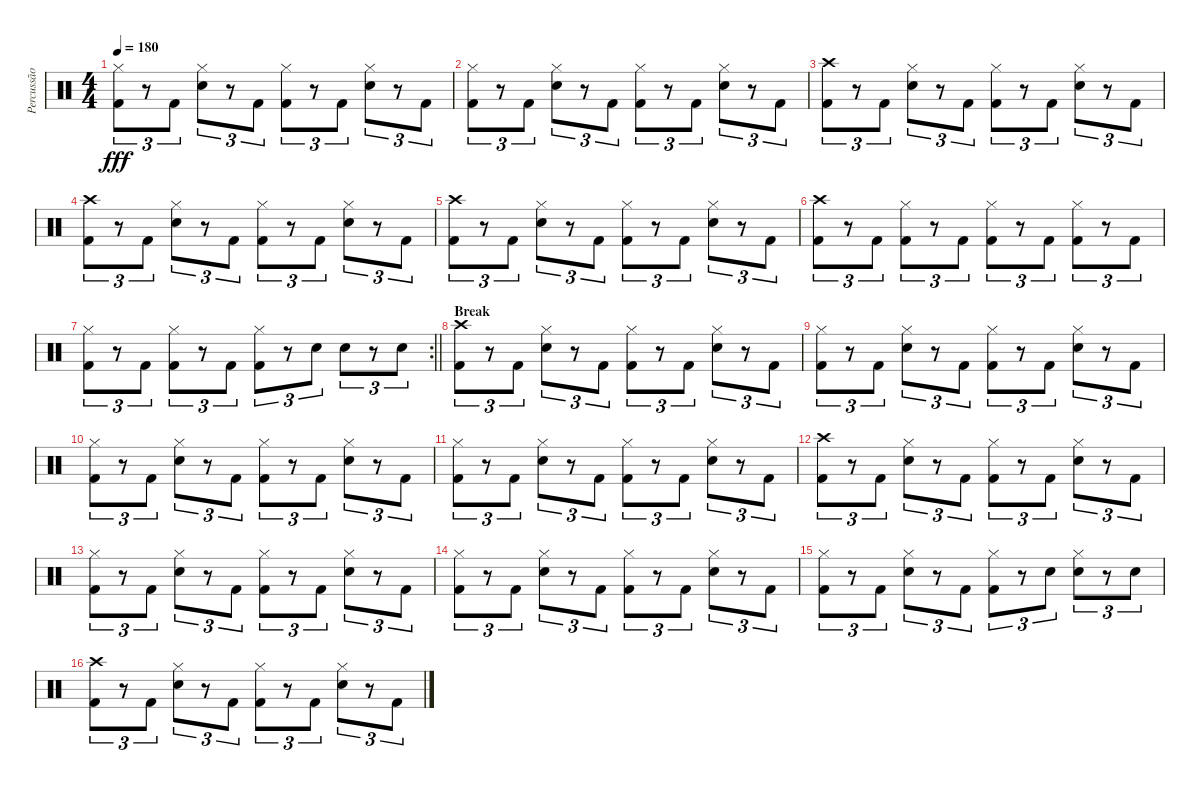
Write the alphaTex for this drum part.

\track ("Percussão" "Percussão") {instrument percussion}
\staff {score}
\articulation defaults
\ts (4 4)
\tempo 180
\clef neutral
\ks c
("Hi-Hat (closed)" "Kick (hit) 2").8{tu (3 2) dy fff} r.8{tu (3 2)} "Kick (hit) 2".8{tu (3 2)} ("Hi-Hat (closed)" "Snare (hit) 2").8{tu (3 2)} r.8{tu (3 2)} "Kick (hit) 2".8{tu (3 2)} ("Hi-Hat (closed)" "Kick (hit) 2").8{tu (3 2)} r.8{tu (3 2)} "Kick (hit) 2".8{tu (3 2)} ("Hi-Hat (closed)" "Snare (hit) 2").8{tu (3 2)} r.8{tu (3 2)} "Kick (hit) 2".8{tu (3 2)} |
("Hi-Hat (closed)" "Kick (hit) 2").8{tu (3 2)} r.8{tu (3 2)} "Kick (hit) 2".8{tu (3 2)} ("Hi-Hat (closed)" "Snare (hit) 2").8{tu (3 2)} r.8{tu (3 2)} "Kick (hit) 2".8{tu (3 2)} ("Hi-Hat (closed)" "Kick (hit) 2").8{tu (3 2)} r.8{tu (3 2)} "Kick (hit) 2".8{tu (3 2)} ("Hi-Hat (closed)" "Snare (hit) 2").8{tu (3 2)} r.8{tu (3 2)} "Kick (hit) 2".8{tu (3 2)} |
("Crash high (hit)" "Kick (hit) 2").8{tu (3 2)} r.8{tu (3 2)} "Kick (hit) 2".8{tu (3 2)} ("Hi-Hat (closed)" "Snare (hit) 2").8{tu (3 2)} r.8{tu (3 2)} "Kick (hit) 2".8{tu (3 2)} ("Hi-Hat (closed)" "Kick (hit) 2").8{tu (3 2)} r.8{tu (3 2)} "Kick (hit) 2".8{tu (3 2)} ("Hi-Hat (closed)" "Snare (hit) 2").8{tu (3 2)} r.8{tu (3 2)} "Kick (hit) 2".8{tu (3 2)} |
("Crash high (hit)" "Kick (hit) 2").8{tu (3 2)} r.8{tu (3 2)} "Kick (hit) 2".8{tu (3 2)} ("Hi-Hat (closed)" "Snare (hit) 2").8{tu (3 2)} r.8{tu (3 2)} "Kick (hit) 2".8{tu (3 2)} ("Hi-Hat (closed)" "Kick (hit) 2").8{tu (3 2)} r.8{tu (3 2)} "Kick (hit) 2".8{tu (3 2)} ("Hi-Hat (closed)" "Snare (hit) 2").8{tu (3 2)} r.8{tu (3 2)} "Kick (hit) 2".8{tu (3 2)} |
("Crash high (hit)" "Kick (hit) 2").8{tu (3 2)} r.8{tu (3 2)} "Kick (hit) 2".8{tu (3 2)} ("Hi-Hat (closed)" "Snare (hit) 2").8{tu (3 2)} r.8{tu (3 2)} "Kick (hit) 2".8{tu (3 2)} ("Hi-Hat (closed)" "Kick (hit) 2").8{tu (3 2)} r.8{tu (3 2)} "Kick (hit) 2".8{tu (3 2)} ("Hi-Hat (closed)" "Snare (hit) 2").8{tu (3 2)} r.8{tu (3 2)} "Kick (hit) 2".8{tu (3 2)} |
("Crash high (hit)" "Kick (hit) 2").8{tu (3 2)} r.8{tu (3 2)} "Kick (hit) 2".8{tu (3 2)} ("Hi-Hat (closed)" "Kick (hit) 2").8{tu (3 2)} r.8{tu (3 2)} "Kick (hit) 2".8{tu (3 2)} ("Hi-Hat (closed)" "Kick (hit) 2").8{tu (3 2)} r.8{tu (3 2)} "Kick (hit) 2".8{tu (3 2)} ("Hi-Hat (closed)" "Kick (hit) 2").8{tu (3 2)} r.8{tu (3 2)} "Kick (hit) 2".8{tu (3 2)} |
\rc 2
\barLineRight lightlight
("Hi-Hat (closed)" "Kick (hit) 2").8{tu (3 2)} r.8{tu (3 2)} "Kick (hit) 2".8{tu (3 2)} ("Hi-Hat (closed)" "Kick (hit) 2").8{tu (3 2)} r.8{tu (3 2)} "Kick (hit) 2".8{tu (3 2)} ("Hi-Hat (closed)" "Kick (hit) 2").8{tu (3 2)} r.8{tu (3 2)} "Snare (hit) 2".8{tu (3 2)} "Snare (hit) 2".8{tu (3 2)} r.8{tu (3 2)} "Snare (hit) 2".8{tu (3 2)} |
\section ("" "Break")
("Crash high (hit)" "Kick (hit) 2").8{tu (3 2)} r.8{tu (3 2)} "Kick (hit) 2".8{tu (3 2)} ("Hi-Hat (closed)" "Snare (hit) 2").8{tu (3 2)} r.8{tu (3 2)} "Kick (hit) 2".8{tu (3 2)} ("Hi-Hat (closed)" "Kick (hit) 2").8{tu (3 2)} r.8{tu (3 2)} "Kick (hit) 2".8{tu (3 2)} ("Hi-Hat (closed)" "Snare (hit) 2").8{tu (3 2)} r.8{tu (3 2)} "Kick (hit) 2".8{tu (3 2)} |
("Hi-Hat (closed)" "Kick (hit) 2").8{tu (3 2)} r.8{tu (3 2)} "Kick (hit) 2".8{tu (3 2)} ("Hi-Hat (closed)" "Snare (hit) 2").8{tu (3 2)} r.8{tu (3 2)} "Kick (hit) 2".8{tu (3 2)} ("Hi-Hat (closed)" "Kick (hit) 2").8{tu (3 2)} r.8{tu (3 2)} "Kick (hit) 2".8{tu (3 2)} ("Hi-Hat (closed)" "Snare (hit) 2").8{tu (3 2)} r.8{tu (3 2)} "Kick (hit) 2".8{tu (3 2)} |
("Hi-Hat (closed)" "Kick (hit) 2").8{tu (3 2)} r.8{tu (3 2)} "Kick (hit) 2".8{tu (3 2)} ("Hi-Hat (closed)" "Snare (hit) 2").8{tu (3 2)} r.8{tu (3 2)} "Kick (hit) 2".8{tu (3 2)} ("Hi-Hat (closed)" "Kick (hit) 2").8{tu (3 2)} r.8{tu (3 2)} "Kick (hit) 2".8{tu (3 2)} ("Hi-Hat (closed)" "Snare (hit) 2").8{tu (3 2)} r.8{tu (3 2)} "Kick (hit) 2".8{tu (3 2)} |
("Hi-Hat (closed)" "Kick (hit) 2").8{tu (3 2)} r.8{tu (3 2)} "Kick (hit) 2".8{tu (3 2)} ("Hi-Hat (closed)" "Snare (hit) 2").8{tu (3 2)} r.8{tu (3 2)} "Kick (hit) 2".8{tu (3 2)} ("Hi-Hat (closed)" "Kick (hit) 2").8{tu (3 2)} r.8{tu (3 2)} "Kick (hit) 2".8{tu (3 2)} ("Hi-Hat (closed)" "Snare (hit) 2").8{tu (3 2)} r.8{tu (3 2)} "Kick (hit) 2".8{tu (3 2)} |
("Crash high (hit)" "Kick (hit) 2").8{tu (3 2)} r.8{tu (3 2)} "Kick (hit) 2".8{tu (3 2)} ("Hi-Hat (closed)" "Snare (hit) 2").8{tu (3 2)} r.8{tu (3 2)} "Kick (hit) 2".8{tu (3 2)} ("Hi-Hat (closed)" "Kick (hit) 2").8{tu (3 2)} r.8{tu (3 2)} "Kick (hit) 2".8{tu (3 2)} ("Hi-Hat (closed)" "Snare (hit) 2").8{tu (3 2)} r.8{tu (3 2)} "Kick (hit) 2".8{tu (3 2)} |
("Hi-Hat (closed)" "Kick (hit) 2").8{tu (3 2)} r.8{tu (3 2)} "Kick (hit) 2".8{tu (3 2)} ("Hi-Hat (closed)" "Snare (hit) 2").8{tu (3 2)} r.8{tu (3 2)} "Kick (hit) 2".8{tu (3 2)} ("Hi-Hat (closed)" "Kick (hit) 2").8{tu (3 2)} r.8{tu (3 2)} "Kick (hit) 2".8{tu (3 2)} ("Hi-Hat (closed)" "Snare (hit) 2").8{tu (3 2)} r.8{tu (3 2)} "Kick (hit) 2".8{tu (3 2)} |
("Hi-Hat (closed)" "Kick (hit) 2").8{tu (3 2)} r.8{tu (3 2)} "Kick (hit) 2".8{tu (3 2)} ("Hi-Hat (closed)" "Snare (hit) 2").8{tu (3 2)} r.8{tu (3 2)} "Kick (hit) 2".8{tu (3 2)} ("Hi-Hat (closed)" "Kick (hit) 2").8{tu (3 2)} r.8{tu (3 2)} "Kick (hit) 2".8{tu (3 2)} ("Hi-Hat (closed)" "Snare (hit) 2").8{tu (3 2)} r.8{tu (3 2)} "Kick (hit) 2".8{tu (3 2)} |
("Hi-Hat (closed)" "Kick (hit) 2").8{tu (3 2)} r.8{tu (3 2)} "Kick (hit) 2".8{tu (3 2)} ("Hi-Hat (closed)" "Snare (hit) 2").8{tu (3 2)} r.8{tu (3 2)} "Kick (hit) 2".8{tu (3 2)} ("Hi-Hat (closed)" "Kick (hit) 2").8{tu (3 2)} r.8{tu (3 2)} "Snare (hit) 2".8{tu (3 2)} ("Hi-Hat (closed)" "Snare (hit) 2").8{tu (3 2)} r.8{tu (3 2)} "Snare (hit) 2".8{tu (3 2)} |
("Crash high (hit)" "Kick (hit) 2").8{tu (3 2)} r.8{tu (3 2)} "Kick (hit) 2".8{tu (3 2)} ("Hi-Hat (closed)" "Snare (hit) 2").8{tu (3 2)} r.8{tu (3 2)} "Kick (hit) 2".8{tu (3 2)} ("Hi-Hat (closed)" "Kick (hit) 2").8{tu (3 2)} r.8{tu (3 2)} "Kick (hit) 2".8{tu (3 2)} ("Hi-Hat (closed)" "Snare (hit) 2").8{tu (3 2)} r.8{tu (3 2)} "Kick (hit) 2".8{tu (3 2)}
